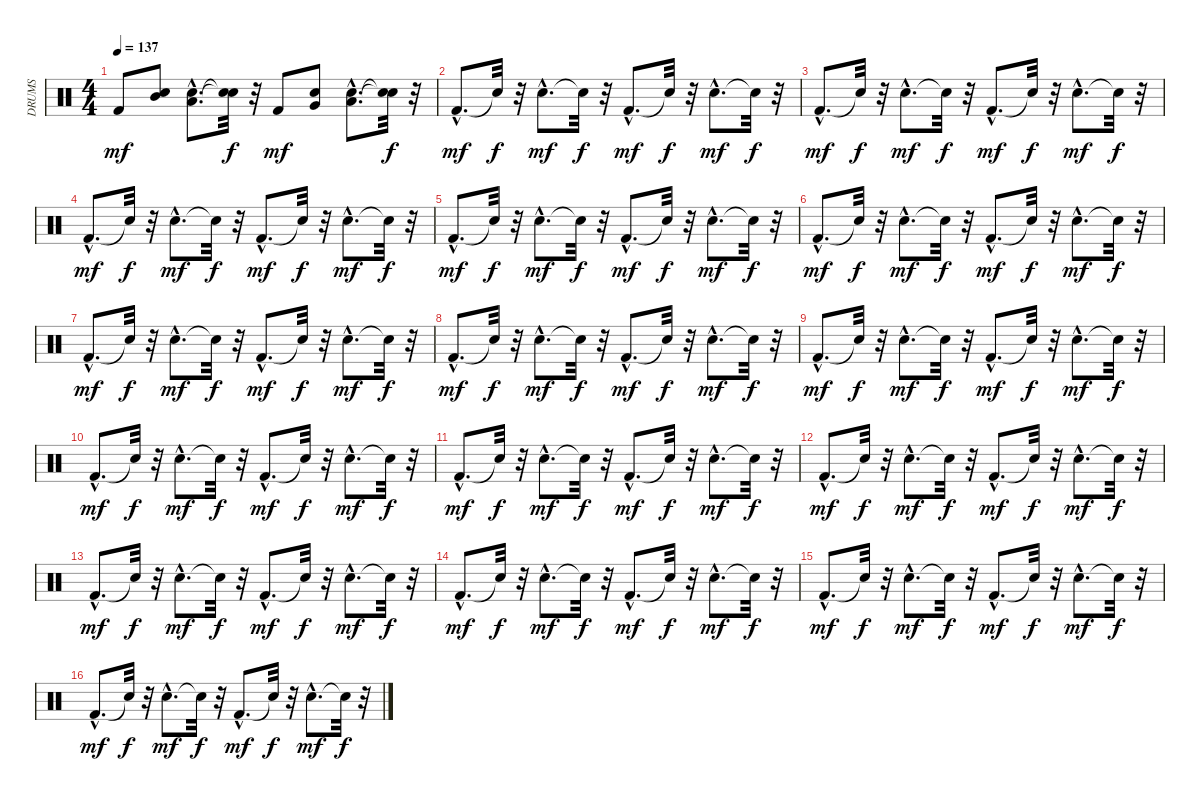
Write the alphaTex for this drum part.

\track ("DRUMS" "DRUMS") {instrument percussion}
\staff {score}
\articulation defaults
\ts (4 4)
\tempo 137
\clef neutral
\ks c "Kick (hit) 2".8{dy mf}
("Snare (hit) 2" "Mid Tom (hit)").8 ("Snare (hit) 2"{hac} "Low Tom (hit)"{hac}).8{d} ("Snare (hit)"{t} "Snare (hit)"{t}).32{dy f} r.32 "Kick (hit) 2".8{dy mf} ("Snare (hit) 2" "Very Low Tom (hit)").8 ("Snare (hit) 2"{hac} "Low Floor Tom (hit)"{hac}).8{d} ("Snare (hit)"{t} "Snare (hit)"{t}).32{dy f} r.32 |
"Kick (hit) 2"{hac}.8{d dy mf} "Snare (hit)"{t}.32{dy f} r.32 "Snare (hit) 2"{hac}.8{d dy mf} "Snare (hit)"{t}.32{dy f} r.32 "Kick (hit) 2"{hac}.8{d dy mf} "Snare (hit)"{t}.32{dy f} r.32 "Snare (hit) 2"{hac}.8{d dy mf} "Snare (hit)"{t}.32{dy f} r.32 |
"Kick (hit) 2"{hac}.8{d dy mf} "Snare (hit)"{t}.32{dy f} r.32 "Snare (hit) 2"{hac}.8{d dy mf} "Snare (hit)"{t}.32{dy f} r.32 "Kick (hit) 2"{hac}.8{d dy mf} "Snare (hit)"{t}.32{dy f} r.32 "Snare (hit) 2"{hac}.8{d dy mf} "Snare (hit)"{t}.32{dy f} r.32 |
"Kick (hit) 2"{hac}.8{d dy mf} "Snare (hit)"{t}.32{dy f} r.32 "Snare (hit) 2"{hac}.8{d dy mf} "Snare (hit)"{t}.32{dy f} r.32 "Kick (hit) 2"{hac}.8{d dy mf} "Snare (hit)"{t}.32{dy f} r.32 "Snare (hit) 2"{hac}.8{d dy mf} "Snare (hit)"{t}.32{dy f} r.32 |
"Kick (hit) 2"{hac}.8{d dy mf} "Snare (hit)"{t}.32{dy f} r.32 "Snare (hit) 2"{hac}.8{d dy mf} "Snare (hit)"{t}.32{dy f} r.32 "Kick (hit) 2"{hac}.8{d dy mf} "Snare (hit)"{t}.32{dy f} r.32 "Snare (hit) 2"{hac}.8{d dy mf} "Snare (hit)"{t}.32{dy f} r.32 |
"Kick (hit) 2"{hac}.8{d dy mf} "Snare (hit)"{t}.32{dy f} r.32 "Snare (hit) 2"{hac}.8{d dy mf} "Snare (hit)"{t}.32{dy f} r.32 "Kick (hit) 2"{hac}.8{d dy mf} "Snare (hit)"{t}.32{dy f} r.32 "Snare (hit) 2"{hac}.8{d dy mf} "Snare (hit)"{t}.32{dy f} r.32 |
"Kick (hit) 2"{hac}.8{d dy mf} "Snare (hit)"{t}.32{dy f} r.32 "Snare (hit) 2"{hac}.8{d dy mf} "Snare (hit)"{t}.32{dy f} r.32 "Kick (hit) 2"{hac}.8{d dy mf} "Snare (hit)"{t}.32{dy f} r.32 "Snare (hit) 2"{hac}.8{d dy mf} "Snare (hit)"{t}.32{dy f} r.32 |
"Kick (hit) 2"{hac}.8{d dy mf} "Snare (hit)"{t}.32{dy f} r.32 "Snare (hit) 2"{hac}.8{d dy mf} "Snare (hit)"{t}.32{dy f} r.32 "Kick (hit) 2"{hac}.8{d dy mf} "Snare (hit)"{t}.32{dy f} r.32 "Snare (hit) 2"{hac}.8{d dy mf} "Snare (hit)"{t}.32{dy f} r.32 |
"Kick (hit) 2"{hac}.8{d dy mf} "Snare (hit)"{t}.32{dy f} r.32 "Snare (hit) 2"{hac}.8{d dy mf} "Snare (hit)"{t}.32{dy f} r.32 "Kick (hit) 2"{hac}.8{d dy mf} "Snare (hit)"{t}.32{dy f} r.32 "Snare (hit) 2"{hac}.8{d dy mf} "Snare (hit)"{t}.32{dy f} r.32 |
"Kick (hit) 2"{hac}.8{d dy mf} "Snare (hit)"{t}.32{dy f} r.32 "Snare (hit) 2"{hac}.8{d dy mf} "Snare (hit)"{t}.32{dy f} r.32 "Kick (hit) 2"{hac}.8{d dy mf} "Snare (hit)"{t}.32{dy f} r.32 "Snare (hit) 2"{hac}.8{d dy mf} "Snare (hit)"{t}.32{dy f} r.32 |
"Kick (hit) 2"{hac}.8{d dy mf} "Snare (hit)"{t}.32{dy f} r.32 "Snare (hit) 2"{hac}.8{d dy mf} "Snare (hit)"{t}.32{dy f} r.32 "Kick (hit) 2"{hac}.8{d dy mf} "Snare (hit)"{t}.32{dy f} r.32 "Snare (hit) 2"{hac}.8{d dy mf} "Snare (hit)"{t}.32{dy f} r.32 |
"Kick (hit) 2"{hac}.8{d dy mf} "Snare (hit)"{t}.32{dy f} r.32 "Snare (hit) 2"{hac}.8{d dy mf} "Snare (hit)"{t}.32{dy f} r.32 "Kick (hit) 2"{hac}.8{d dy mf} "Snare (hit)"{t}.32{dy f} r.32 "Snare (hit) 2"{hac}.8{d dy mf} "Snare (hit)"{t}.32{dy f} r.32 |
"Kick (hit) 2"{hac}.8{d dy mf} "Snare (hit)"{t}.32{dy f} r.32 "Snare (hit) 2"{hac}.8{d dy mf} "Snare (hit)"{t}.32{dy f} r.32 "Kick (hit) 2"{hac}.8{d dy mf} "Snare (hit)"{t}.32{dy f} r.32 "Snare (hit) 2"{hac}.8{d dy mf} "Snare (hit)"{t}.32{dy f} r.32 |
"Kick (hit) 2"{hac}.8{d dy mf} "Snare (hit)"{t}.32{dy f} r.32 "Snare (hit) 2"{hac}.8{d dy mf} "Snare (hit)"{t}.32{dy f} r.32 "Kick (hit) 2"{hac}.8{d dy mf} "Snare (hit)"{t}.32{dy f} r.32 "Snare (hit) 2"{hac}.8{d dy mf} "Snare (hit)"{t}.32{dy f} r.32 |
"Kick (hit) 2"{hac}.8{d dy mf} "Snare (hit)"{t}.32{dy f} r.32 "Snare (hit) 2"{hac}.8{d dy mf} "Snare (hit)"{t}.32{dy f} r.32 "Kick (hit) 2"{hac}.8{d dy mf} "Snare (hit)"{t}.32{dy f} r.32 "Snare (hit) 2"{hac}.8{d dy mf} "Snare (hit)"{t}.32{dy f} r.32 |
"Kick (hit) 2"{hac}.8{d dy mf} "Snare (hit)"{t}.32{dy f} r.32 "Snare (hit) 2"{hac}.8{d dy mf} "Snare (hit)"{t}.32{dy f} r.32 "Kick (hit) 2"{hac}.8{d dy mf} "Snare (hit)"{t}.32{dy f} r.32 "Snare (hit) 2"{hac}.8{d dy mf} "Snare (hit)"{t}.32{dy f} r.32
